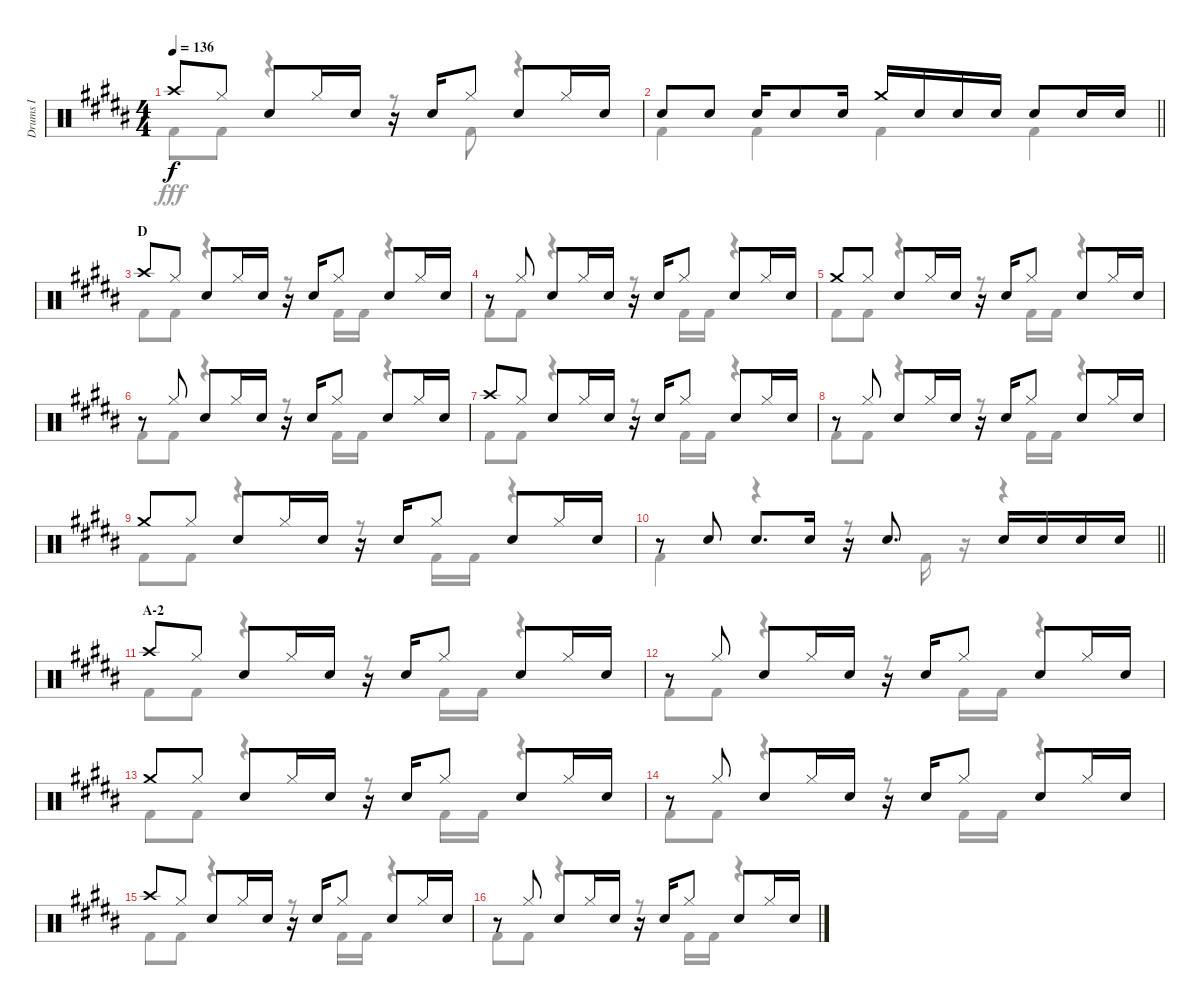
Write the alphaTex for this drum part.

\track ("Drums I" "Drums I") {instrument percussion}
\staff {score}
\articulation defaults
\voice
\ts (4 4)
\tempo 136
\clef neutral
\ks b "Crash high (hit)".8{dy f} "Hi-Hat (closed)".8 "Snare (hit) 2".8 "Hi-Hat (closed)".16 "Snare (hit) 2".16
r.16 "Snare (hit) 2".16 "Hi-Hat (closed)".8 "Snare (hit) 2".8 "Hi-Hat (closed)".16 "Snare (hit) 2".16 |
\barLineRight lightlight "Snare (hit) 2".8 "Snare (hit) 2".8 "Snare (hit) 2".16 "Snare (hit) 2".8 "Snare (hit) 2".16 "Crash medium (hit)".16 "Snare (hit) 2".16 "Snare (hit) 2".16 "Snare (hit) 2".16 "Snare (hit) 2".8 "Snare (hit) 2".16 "Snare (hit) 2".16
|
\section ("" "D")
"Crash high (hit)".8 "Hi-Hat (closed)".8 "Snare (hit) 2".8 "Hi-Hat (closed)".16 "Snare (hit) 2".16 r.16 "Snare (hit) 2".16 "Hi-Hat (closed)".8 "Snare (hit) 2".8 "Hi-Hat (closed)".16 "Snare (hit) 2".16 |
r.8 "Hi-Hat (closed)".8 "Snare (hit) 2".8 "Hi-Hat (closed)".16 "Snare (hit) 2".16 r.16 "Snare (hit) 2".16 "Hi-Hat (closed)".8 "Snare (hit) 2".8 "Hi-Hat (closed)".16 "Snare (hit) 2".16 |
"Crash medium (hit)".8 "Hi-Hat (closed)".8 "Snare (hit) 2".8 "Hi-Hat (closed)".16 "Snare (hit) 2".16 r.16 "Snare (hit) 2".16 "Hi-Hat (closed)".8 "Snare (hit) 2".8 "Hi-Hat (closed)".16 "Snare (hit) 2".16 |
r.8 "Hi-Hat (closed)".8 "Snare (hit) 2".8 "Hi-Hat (closed)".16 "Snare (hit) 2".16 r.16 "Snare (hit) 2".16 "Hi-Hat (closed)".8 "Snare (hit) 2".8 "Hi-Hat (closed)".16 "Snare (hit) 2".16 |
"Crash high (hit)".8 "Hi-Hat (closed)".8 "Snare (hit) 2".8 "Hi-Hat (closed)".16 "Snare (hit) 2".16 r.16 "Snare (hit) 2".16 "Hi-Hat (closed)".8 "Snare (hit) 2".8 "Hi-Hat (closed)".16 "Snare (hit) 2".16 |
r.8 "Hi-Hat (closed)".8 "Snare (hit) 2".8 "Hi-Hat (closed)".16 "Snare (hit) 2".16 r.16 "Snare (hit) 2".16 "Hi-Hat (closed)".8 "Snare (hit) 2".8 "Hi-Hat (closed)".16 "Snare (hit) 2".16 |
"Crash medium (hit)".8 "Hi-Hat (closed)".8 "Snare (hit) 2".8 "Hi-Hat (closed)".16 "Snare (hit) 2".16 r.16 "Snare (hit) 2".16 "Hi-Hat (closed)".8 "Snare (hit) 2".8 "Hi-Hat (closed)".16 "Snare (hit) 2".16 |
\barLineRight lightlight
r.8 "Snare (hit) 2".8 "Snare (hit) 2".8{d} "Snare (hit) 2".16 r.16 "Snare (hit) 2".8{d} "Snare (hit) 2".16 "Snare (hit) 2".16 "Snare (hit) 2".16 "Snare (hit) 2".16 |
\section ("" "A-2")
"Crash high (hit)".8 "Hi-Hat (closed)".8 "Snare (hit) 2".8 "Hi-Hat (closed)".16 "Snare (hit) 2".16 r.16 "Snare (hit) 2".16 "Hi-Hat (closed)".8 "Snare (hit) 2".8 "Hi-Hat (closed)".16 "Snare (hit) 2".16 |
r.8 "Hi-Hat (closed)".8 "Snare (hit) 2".8 "Hi-Hat (closed)".16 "Snare (hit) 2".16 r.16 "Snare (hit) 2".16 "Hi-Hat (closed)".8 "Snare (hit) 2".8 "Hi-Hat (closed)".16 "Snare (hit) 2".16 |
"Crash medium (hit)".8 "Hi-Hat (closed)".8 "Snare (hit) 2".8 "Hi-Hat (closed)".16 "Snare (hit) 2".16 r.16 "Snare (hit) 2".16 "Hi-Hat (closed)".8 "Snare (hit) 2".8 "Hi-Hat (closed)".16 "Snare (hit) 2".16 |
r.8 "Hi-Hat (closed)".8 "Snare (hit) 2".8 "Hi-Hat (closed)".16 "Snare (hit) 2".16 r.16 "Snare (hit) 2".16 "Hi-Hat (closed)".8 "Snare (hit) 2".8 "Hi-Hat (closed)".16 "Snare (hit) 2".16 |
"Crash high (hit)".8 "Hi-Hat (closed)".8 "Snare (hit) 2".8 "Hi-Hat (closed)".16 "Snare (hit) 2".16 r.16 "Snare (hit) 2".16 "Hi-Hat (closed)".8 "Snare (hit) 2".8 "Hi-Hat (closed)".16 "Snare (hit) 2".16 |
r.8 "Hi-Hat (closed)".8 "Snare (hit) 2".8 "Hi-Hat (closed)".16 "Snare (hit) 2".16 r.16 "Snare (hit) 2".16 "Hi-Hat (closed)".8 "Snare (hit) 2".8 "Hi-Hat (closed)".16 "Snare (hit) 2".16
\voice
\clef neutral
\ottava regular
\simile none
\ks b "Kick (hit) 2".8{dy fff} "Kick (hit) 2".8
r.4 r.8 "Kick (hit) 2".8 r.4 |
\barLineRight lightlight "Kick (hit) 2".4 "Kick (hit) 2".4 "Kick (hit) 2".4 "Kick (hit) 2".4
|
"Kick (hit) 2".8 "Kick (hit) 2".8 r.4 r.8 "Kick (hit) 2".16 "Kick (hit) 2".16 r.4 |
"Kick (hit) 2".8 "Kick (hit) 2".8 r.4 r.8 "Kick (hit) 2".16 "Kick (hit) 2".16 r.4 |
"Kick (hit) 2".8 "Kick (hit) 2".8 r.4 r.8 "Kick (hit) 2".16 "Kick (hit) 2".16 r.4 |
"Kick (hit) 2".8 "Kick (hit) 2".8 r.4 r.8 "Kick (hit) 2".16 "Kick (hit) 2".16 r.4 |
"Kick (hit) 2".8 "Kick (hit) 2".8 r.4 r.8 "Kick (hit) 2".16 "Kick (hit) 2".16 r.4 |
"Kick (hit) 2".8 "Kick (hit) 2".8 r.4 r.8 "Kick (hit) 2".16 "Kick (hit) 2".16 r.4 |
"Kick (hit) 2".8 "Kick (hit) 2".8 r.4 r.8 "Kick (hit) 2".16 "Kick (hit) 2".16 r.4 |
\barLineRight lightlight "Kick (hit) 2".4
r.4 r.8 "Kick (hit) 2".16 r.16 r.4 |
"Kick (hit) 2".8 "Kick (hit) 2".8 r.4 r.8 "Kick (hit) 2".16 "Kick (hit) 2".16 r.4 |
"Kick (hit) 2".8 "Kick (hit) 2".8 r.4 r.8 "Kick (hit) 2".16 "Kick (hit) 2".16 r.4 |
"Kick (hit) 2".8 "Kick (hit) 2".8 r.4 r.8 "Kick (hit) 2".16 "Kick (hit) 2".16 r.4 |
"Kick (hit) 2".8 "Kick (hit) 2".8 r.4 r.8 "Kick (hit) 2".16 "Kick (hit) 2".16 r.4 |
"Kick (hit) 2".8 "Kick (hit) 2".8 r.4 r.8 "Kick (hit) 2".16 "Kick (hit) 2".16 r.4 |
"Kick (hit) 2".8 "Kick (hit) 2".8 r.4 r.8 "Kick (hit) 2".16 "Kick (hit) 2".16 r.4
